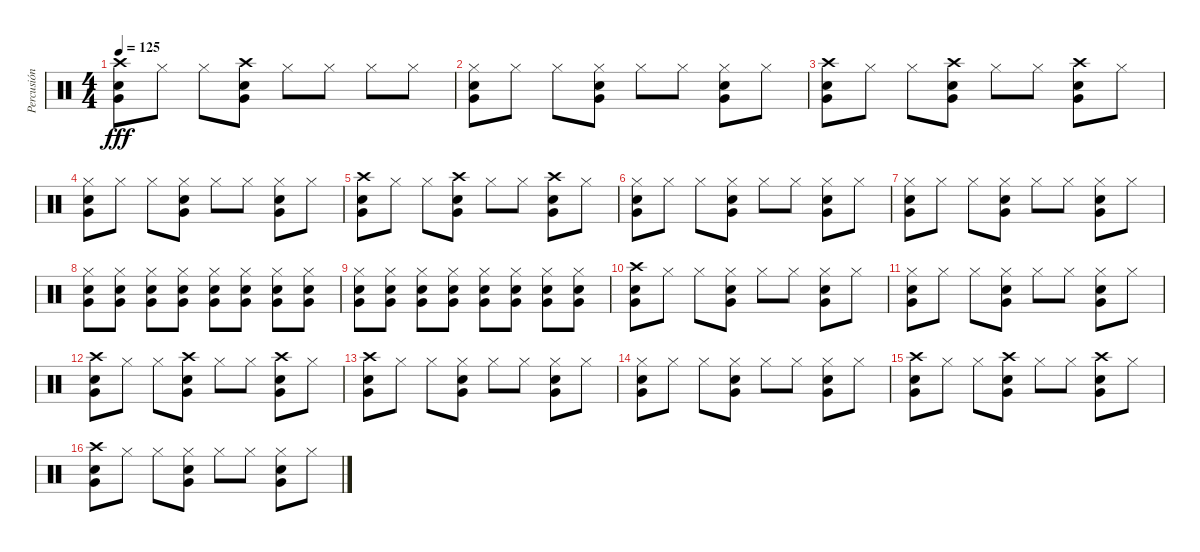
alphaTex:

\track ("Percusión" "Percusión") {instrument percussion}
\staff {score}
\articulation defaults
\ts (4 4)
\tempo 125
\clef neutral
\ks c
("Crash high (hit)" "Snare (hit) 2" "Very Low Tom (hit)").8{dy fff} "Hi-Hat (closed)".8 "Hi-Hat (closed)".8 ("Crash high (hit)" "Snare (hit) 2" "Very Low Tom (hit)").8 "Hi-Hat (closed)".8 "Hi-Hat (closed)".8 "Hi-Hat (closed)".8 "Hi-Hat (closed)".8 |
("Hi-Hat (closed)" "Snare (hit) 2" "Very Low Tom (hit)").8 "Hi-Hat (closed)".8 "Hi-Hat (closed)".8 ("Hi-Hat (closed)" "Snare (hit) 2" "Very Low Tom (hit)").8 "Hi-Hat (closed)".8 "Hi-Hat (closed)".8 ("Hi-Hat (closed)" "Snare (hit) 2" "Very Low Tom (hit)").8 "Hi-Hat (closed)".8 |
("Crash high (hit)" "Snare (hit) 2" "Very Low Tom (hit)").8 "Hi-Hat (closed)".8 "Hi-Hat (closed)".8 ("Crash high (hit)" "Snare (hit) 2" "Very Low Tom (hit)").8 "Hi-Hat (closed)".8 "Hi-Hat (closed)".8 ("Crash high (hit)" "Snare (hit) 2" "Very Low Tom (hit)").8 "Hi-Hat (closed)".8 |
("Hi-Hat (closed)" "Snare (hit) 2" "Very Low Tom (hit)").8 "Hi-Hat (closed)".8 "Hi-Hat (closed)".8 ("Hi-Hat (closed)" "Snare (hit) 2" "Very Low Tom (hit)").8 "Hi-Hat (closed)".8 "Hi-Hat (closed)".8 ("Hi-Hat (closed)" "Snare (hit) 2" "Very Low Tom (hit)").8 "Hi-Hat (closed)".8 |
("Crash high (hit)" "Snare (hit) 2" "Very Low Tom (hit)").8 "Hi-Hat (closed)".8 "Hi-Hat (closed)".8 ("Crash high (hit)" "Snare (hit) 2" "Very Low Tom (hit)").8 "Hi-Hat (closed)".8 "Hi-Hat (closed)".8 ("Crash high (hit)" "Snare (hit) 2" "Very Low Tom (hit)").8 "Hi-Hat (closed)".8 |
("Hi-Hat (closed)" "Snare (hit) 2" "Very Low Tom (hit)").8 "Hi-Hat (closed)".8 "Hi-Hat (closed)".8 ("Hi-Hat (closed)" "Snare (hit) 2" "Very Low Tom (hit)").8 "Hi-Hat (closed)".8 "Hi-Hat (closed)".8 ("Hi-Hat (closed)" "Snare (hit) 2" "Very Low Tom (hit)").8 "Hi-Hat (closed)".8 |
("Hi-Hat (closed)" "Snare (hit) 2" "Very Low Tom (hit)").8 "Hi-Hat (closed)".8 "Hi-Hat (closed)".8 ("Hi-Hat (closed)" "Snare (hit) 2" "Very Low Tom (hit)").8 "Hi-Hat (closed)".8 "Hi-Hat (closed)".8 ("Hi-Hat (closed)" "Snare (hit) 2" "Very Low Tom (hit)").8 "Hi-Hat (closed)".8 |
("Hi-Hat (closed)" "Snare (hit) 2" "Very Low Tom (hit)").8 ("Hi-Hat (closed)" "Snare (hit) 2" "Very Low Tom (hit)").8 ("Hi-Hat (closed)" "Snare (hit) 2" "Very Low Tom (hit)").8 ("Hi-Hat (closed)" "Snare (hit) 2" "Very Low Tom (hit)").8 ("Hi-Hat (closed)" "Snare (hit) 2" "Very Low Tom (hit)").8 ("Hi-Hat (closed)" "Snare (hit) 2" "Very Low Tom (hit)").8 ("Hi-Hat (closed)" "Snare (hit) 2" "Very Low Tom (hit)").8 ("Hi-Hat (closed)" "Snare (hit) 2" "Very Low Tom (hit)").8 |
("Hi-Hat (closed)" "Snare (hit) 2" "Very Low Tom (hit)").8 ("Hi-Hat (closed)" "Snare (hit) 2" "Very Low Tom (hit)").8 ("Hi-Hat (closed)" "Snare (hit) 2" "Very Low Tom (hit)").8 ("Hi-Hat (closed)" "Snare (hit) 2" "Very Low Tom (hit)").8 ("Hi-Hat (closed)" "Snare (hit) 2" "Very Low Tom (hit)").8 ("Hi-Hat (closed)" "Snare (hit) 2" "Very Low Tom (hit)").8 ("Hi-Hat (closed)" "Snare (hit) 2" "Very Low Tom (hit)").8 ("Hi-Hat (closed)" "Snare (hit) 2" "Very Low Tom (hit)").8 |
("Crash high (hit)" "Snare (hit) 2" "Very Low Tom (hit)").8 "Hi-Hat (closed)".8 "Hi-Hat (closed)".8 ("Hi-Hat (closed)" "Snare (hit) 2" "Very Low Tom (hit)").8 "Hi-Hat (closed)".8 "Hi-Hat (closed)".8 ("Hi-Hat (closed)" "Snare (hit) 2" "Very Low Tom (hit)").8 "Hi-Hat (closed)".8 |
("Hi-Hat (closed)" "Snare (hit) 2" "Very Low Tom (hit)").8 "Hi-Hat (closed)".8 "Hi-Hat (closed)".8 ("Hi-Hat (closed)" "Snare (hit) 2" "Very Low Tom (hit)").8 "Hi-Hat (closed)".8 "Hi-Hat (closed)".8 ("Hi-Hat (closed)" "Snare (hit) 2" "Very Low Tom (hit)").8 "Hi-Hat (closed)".8 |
("Crash high (hit)" "Snare (hit) 2" "Very Low Tom (hit)").8 "Hi-Hat (closed)".8 "Hi-Hat (closed)".8 ("Crash high (hit)" "Snare (hit) 2" "Very Low Tom (hit)").8 "Hi-Hat (closed)".8 "Hi-Hat (closed)".8 ("Crash high (hit)" "Snare (hit) 2" "Very Low Tom (hit)").8 "Hi-Hat (closed)".8 |
("Crash high (hit)" "Snare (hit) 2" "Very Low Tom (hit)").8 "Hi-Hat (closed)".8 "Hi-Hat (closed)".8 ("Hi-Hat (closed)" "Snare (hit) 2" "Very Low Tom (hit)").8 "Hi-Hat (closed)".8 "Hi-Hat (closed)".8 ("Hi-Hat (closed)" "Snare (hit) 2" "Very Low Tom (hit)").8 "Hi-Hat (closed)".8 |
("Hi-Hat (closed)" "Snare (hit) 2" "Very Low Tom (hit)").8 "Hi-Hat (closed)".8 "Hi-Hat (closed)".8 ("Hi-Hat (closed)" "Snare (hit) 2" "Very Low Tom (hit)").8 "Hi-Hat (closed)".8 "Hi-Hat (closed)".8 ("Hi-Hat (closed)" "Snare (hit) 2" "Very Low Tom (hit)").8 "Hi-Hat (closed)".8 |
("Crash high (hit)" "Snare (hit) 2" "Very Low Tom (hit)").8 "Hi-Hat (closed)".8 "Hi-Hat (closed)".8 ("Crash high (hit)" "Snare (hit) 2" "Very Low Tom (hit)").8 "Hi-Hat (closed)".8 "Hi-Hat (closed)".8 ("Crash high (hit)" "Snare (hit) 2" "Very Low Tom (hit)").8 "Hi-Hat (closed)".8 |
("Crash high (hit)" "Snare (hit) 2" "Very Low Tom (hit)").8 "Hi-Hat (closed)".8 "Hi-Hat (closed)".8 ("Hi-Hat (closed)" "Snare (hit) 2" "Very Low Tom (hit)").8 "Hi-Hat (closed)".8 "Hi-Hat (closed)".8 ("Hi-Hat (closed)" "Snare (hit) 2" "Very Low Tom (hit)").8 "Hi-Hat (closed)".8
